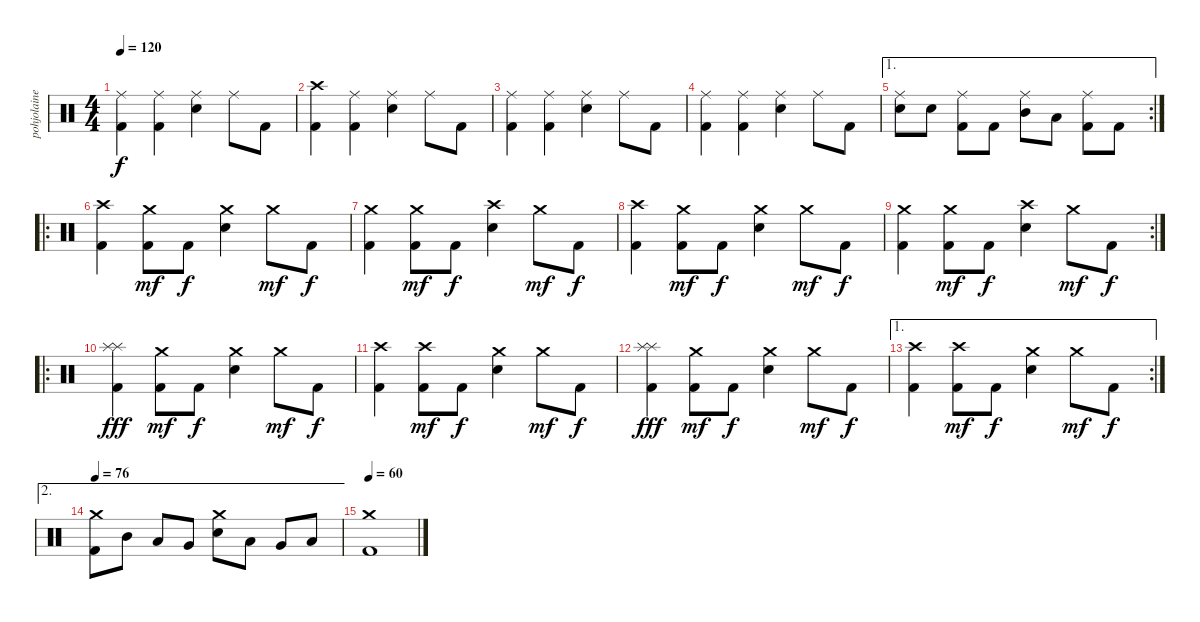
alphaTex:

\track ("pohjolainen" "pohjolaine") {instrument percussion}
\staff {score}
\articulation defaults
\ts (4 4)
\tempo 120
\clef neutral
\ks c
("Kick (hit) 2" "Ride (middle)").4{dy f} ("Kick (hit) 2" "Ride (middle)").4 ("Ride (middle)" "Snare (hit) 2").4 "Ride (middle)".8 "Kick (hit) 2".8 |
("Kick (hit) 2" "Crash high (hit)").4 ("Kick (hit) 2" "Ride (middle)").4 ("Ride (middle)" "Snare (hit) 2").4 "Ride (middle)".8 "Kick (hit) 2".8 |
("Kick (hit) 2" "Ride (middle)").4 ("Kick (hit) 2" "Ride (middle)").4 ("Ride (middle)" "Snare (hit) 2").4 "Ride (middle)".8 "Kick (hit) 2".8 |
("Kick (hit) 2" "Ride (middle)").4 ("Kick (hit) 2" "Ride (middle)").4 ("Ride (middle)" "Snare (hit) 2").4 "Ride (middle)".8 "Kick (hit) 2".8 |
\ae 1
\rc 2
("Ride (middle)" "Snare (hit) 2").8 "Snare (hit) 2".8 ("Kick (hit) 2" "Ride (middle)").8 "Kick (hit) 2".8 ("Mid Tom (hit)" "Ride (middle)").8 "Low Tom (hit)".8 ("Kick (hit) 2" "Ride (middle)").8 "Kick (hit) 2".8 |
\ro
("Kick (hit) 2" "Crash high (hit)").4 ("Kick (hit) 2" "Crash medium (hit)").8{dy mf} "Kick (hit) 2".8{dy f} ("Crash medium (hit)" "Snare (hit) 2").4 "Crash medium (hit)".8{dy mf} "Kick (hit) 2".8{dy f} |
("Kick (hit) 2" "Crash medium (hit)").4 ("Kick (hit) 2" "Crash medium (hit)").8{dy mf} "Kick (hit) 2".8{dy f} ("Crash high (hit)" "Snare (hit) 2").4 "Crash medium (hit)".8{dy mf} "Kick (hit) 2".8{dy f} |
("Kick (hit) 2" "Crash high (hit)").4 ("Kick (hit) 2" "Crash medium (hit)").8{dy mf} "Kick (hit) 2".8{dy f} ("Crash medium (hit)" "Snare (hit) 2").4 "Crash medium (hit)".8{dy mf} "Kick (hit) 2".8{dy f} |
\rc 2
("Kick (hit) 2" "Crash medium (hit)").4 ("Kick (hit) 2" "Crash medium (hit)").8{dy mf} "Kick (hit) 2".8{dy f} ("Crash high (hit)" "Snare (hit) 2").4 "Crash medium (hit)".8{dy mf} "Kick (hit) 2".8{dy f} |
\ro
("Kick (hit) 2" "Splash (hit)" "Splash (hit)").4{dy fff} ("Kick (hit) 2" "Crash medium (hit)").8{dy mf} "Kick (hit) 2".8{dy f} ("Crash medium (hit)" "Snare (hit) 2").4 "Crash medium (hit)".8{dy mf} "Kick (hit) 2".8{dy f} |
("Kick (hit) 2" "Crash high (hit)").4 ("Kick (hit) 2" "Crash high (hit)").8{dy mf} "Kick (hit) 2".8{dy f} ("Crash medium (hit)" "Snare (hit) 2").4 "Crash medium (hit)".8{dy mf} "Kick (hit) 2".8{dy f} |
("Kick (hit) 2" "Splash (hit)" "Splash (hit)").4{dy fff} ("Kick (hit) 2" "Crash medium (hit)").8{dy mf} "Kick (hit) 2".8{dy f} ("Crash medium (hit)" "Snare (hit) 2").4 "Crash medium (hit)".8{dy mf} "Kick (hit) 2".8{dy f} |
\ae 1
\rc 2
("Kick (hit) 2" "Crash high (hit)").4 ("Kick (hit) 2" "Crash high (hit)").8{dy mf} "Kick (hit) 2".8{dy f} ("Crash medium (hit)" "Snare (hit) 2").4 "Crash medium (hit)".8{dy mf} "Kick (hit) 2".8{dy f} |
\ae 2
\tempo 76
("Kick (hit) 2" "Crash medium (hit)").8 "Mid Tom (hit)".8 "Low Tom (hit)".8 "Very Low Tom (hit)".8 ("Crash medium (hit)" "Snare (hit) 2").8 "Low Tom (hit)".8 "Very Low Tom (hit)".8 "Low Floor Tom (hit)".8 |
\tempo 60
("Kick (hit) 2" "Crash medium (hit)").1{volume 0}
